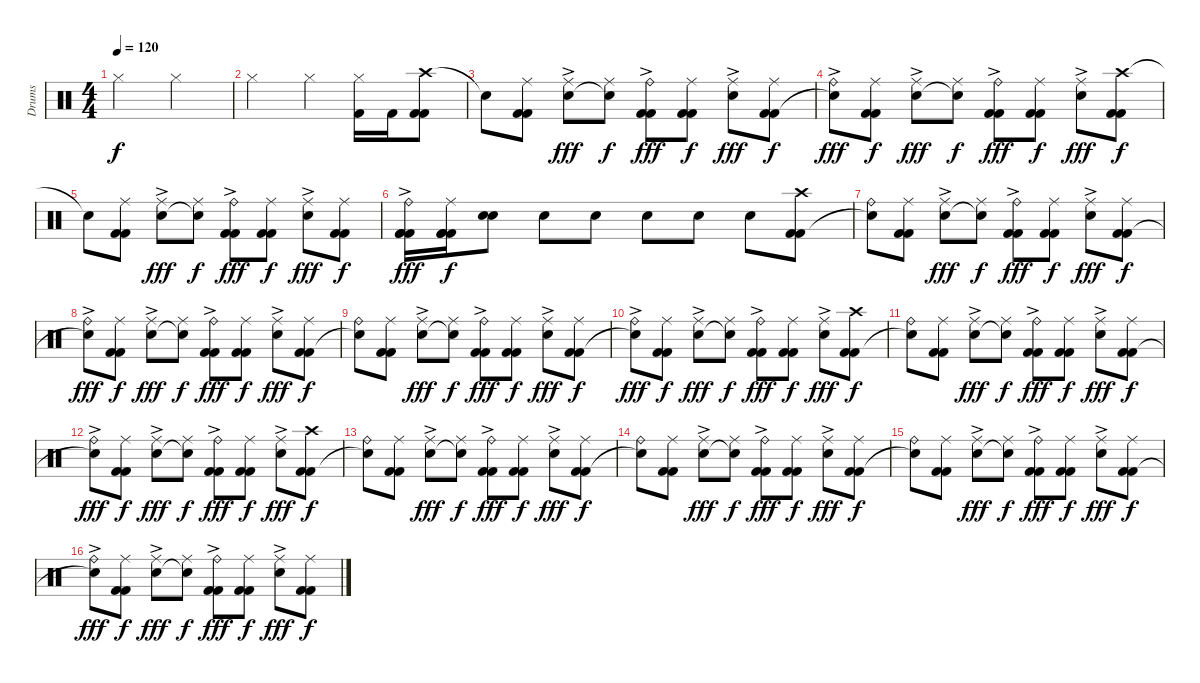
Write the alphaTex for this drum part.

\track ("Drums" "Drums") {instrument percussion}
\staff {score}
\articulation defaults
\ts (4 4)
\tempo 120
\clef neutral
\ks c "Hi-Hat (closed)".2{dy f} "Hi-Hat (closed)".2
|
"Hi-Hat (closed)".2 "Hi-Hat (closed)".4 ("Hi-Hat (closed)" "Kick (hit) 2").16 "Kick (hit) 2".16 ("Crash high (hit)" "Kick (hit) 2" "Kick (hit) 2").8 |
"Snare (hit)"{t}.8 ("Ride (middle)" "Kick (hit) 2" "Kick (hit) 2").8 ("Ride (middle)"{ac} "Snare (hit) 2").8{dy fff} ("Ride (middle)" "Electric Snare (hit)"{t}).8{dy f} ("Ride (bell)"{ac} "Kick (hit) 2" "Kick (hit) 2").8{dy fff} ("Ride (middle)" "Kick (hit) 2" "Kick (hit) 2").8{dy f} ("Ride (middle)"{ac} "Snare (hit) 2").8{dy fff} ("Ride (middle)" "Kick (hit) 2" "Kick (hit) 2").8{dy f} |
("Ride (bell)"{ac} "Snare (hit)"{t}).8{dy fff} ("Ride (middle)" "Kick (hit) 2" "Kick (hit) 2").8{dy f} ("Ride (middle)"{ac} "Snare (hit) 2").8{dy fff} ("Ride (middle)" "Electric Snare (hit)"{t}).8{dy f} ("Ride (bell)"{ac} "Kick (hit) 2" "Kick (hit) 2").8{dy fff} ("Ride (middle)" "Kick (hit) 2" "Kick (hit) 2").8{dy f} ("Ride (middle)"{ac} "Snare (hit) 2").8{dy fff} ("Crash high (hit)" "Kick (hit) 2" "Kick (hit) 2").8{dy f} |
"Snare (hit)"{t}.8 ("Ride (middle)" "Kick (hit) 2" "Kick (hit) 2").8 ("Ride (middle)"{ac} "Snare (hit) 2").8{dy fff} ("Ride (middle)" "Electric Snare (hit)"{t}).8{dy f} ("Ride (bell)"{ac} "Kick (hit) 2" "Kick (hit) 2").8{dy fff} ("Ride (middle)" "Kick (hit) 2" "Kick (hit) 2").8{dy f} ("Ride (middle)"{ac} "Snare (hit) 2").8{dy fff} ("Ride (middle)" "Kick (hit) 2" "Kick (hit) 2").8{dy f} |
("Ride (bell)"{ac} "Kick (hit) 2" "Kick (hit) 2" "Kick (hit) 2").16{dy fff} ("Ride (middle)" "Kick (hit) 2" "Kick (hit) 2" "Kick (hit) 2").16{dy f} ("Snare (hit) 2" "Snare (hit) 2").8 "Snare (hit) 2".8 "Snare (hit) 2".8 "Snare (hit) 2".8 "Snare (hit) 2".8 "Snare (hit) 2".8 ("Crash high (hit)" "Kick (hit) 2" "Kick (hit) 2").8 |
("Ride (bell)" "Snare (hit)"{t}).8 ("Ride (middle)" "Kick (hit) 2" "Kick (hit) 2").8 ("Ride (middle)"{ac} "Snare (hit) 2").8{dy fff} ("Ride (middle)" "Electric Snare (hit)"{t}).8{dy f} ("Ride (bell)"{ac} "Kick (hit) 2" "Kick (hit) 2").8{dy fff} ("Ride (middle)" "Kick (hit) 2" "Kick (hit) 2").8{dy f} ("Ride (middle)"{ac} "Snare (hit) 2").8{dy fff} ("Ride (middle)" "Kick (hit) 2" "Kick (hit) 2").8{dy f} |
("Ride (bell)"{ac} "Snare (hit)"{t}).8{dy fff} ("Ride (middle)" "Kick (hit) 2" "Kick (hit) 2").8{dy f} ("Ride (middle)"{ac} "Snare (hit) 2").8{dy fff} ("Ride (middle)" "Electric Snare (hit)"{t}).8{dy f} ("Ride (bell)"{ac} "Kick (hit) 2" "Kick (hit) 2").8{dy fff} ("Ride (middle)" "Kick (hit) 2" "Kick (hit) 2").8{dy f} ("Ride (middle)"{ac} "Snare (hit) 2").8{dy fff} ("Ride (middle)" "Kick (hit) 2" "Kick (hit) 2").8{dy f} |
("Ride (bell)" "Snare (hit)"{t}).8 ("Ride (middle)" "Kick (hit) 2" "Kick (hit) 2").8 ("Ride (middle)"{ac} "Snare (hit) 2").8{dy fff} ("Ride (middle)" "Electric Snare (hit)"{t}).8{dy f} ("Ride (bell)"{ac} "Kick (hit) 2" "Kick (hit) 2").8{dy fff} ("Ride (middle)" "Kick (hit) 2" "Kick (hit) 2").8{dy f} ("Ride (middle)"{ac} "Snare (hit) 2").8{dy fff} ("Ride (middle)" "Kick (hit) 2" "Kick (hit) 2").8{dy f} |
("Ride (bell)"{ac} "Snare (hit)"{t}).8{dy fff} ("Ride (middle)" "Kick (hit) 2" "Kick (hit) 2").8{dy f} ("Ride (middle)"{ac} "Snare (hit) 2").8{dy fff} ("Ride (middle)" "Electric Snare (hit)"{t}).8{dy f} ("Ride (bell)"{ac} "Kick (hit) 2" "Kick (hit) 2").8{dy fff} ("Ride (middle)" "Kick (hit) 2" "Kick (hit) 2").8{dy f} ("Ride (middle)"{ac} "Snare (hit) 2").8{dy fff} ("Crash high (hit)" "Kick (hit) 2" "Kick (hit) 2").8{dy f} |
("Ride (bell)" "Snare (hit)"{t}).8 ("Ride (middle)" "Kick (hit) 2" "Kick (hit) 2").8 ("Ride (middle)"{ac} "Snare (hit) 2").8{dy fff} ("Ride (middle)" "Electric Snare (hit)"{t}).8{dy f} ("Ride (bell)"{ac} "Kick (hit) 2" "Kick (hit) 2").8{dy fff} ("Ride (middle)" "Kick (hit) 2" "Kick (hit) 2").8{dy f} ("Ride (middle)"{ac} "Snare (hit) 2").8{dy fff} ("Ride (middle)" "Kick (hit) 2" "Kick (hit) 2").8{dy f} |
("Ride (bell)"{ac} "Snare (hit)"{t}).8{dy fff} ("Ride (middle)" "Kick (hit) 2" "Kick (hit) 2").8{dy f} ("Ride (middle)"{ac} "Snare (hit) 2").8{dy fff} ("Ride (middle)" "Electric Snare (hit)"{t}).8{dy f} ("Ride (bell)"{ac} "Kick (hit) 2" "Kick (hit) 2").8{dy fff} ("Ride (middle)" "Kick (hit) 2" "Kick (hit) 2").8{dy f} ("Ride (middle)"{ac} "Snare (hit) 2").8{dy fff} ("Crash high (hit)" "Kick (hit) 2" "Kick (hit) 2").8{dy f} |
("Ride (bell)" "Snare (hit)"{t}).8 ("Ride (middle)" "Kick (hit) 2" "Kick (hit) 2").8 ("Ride (middle)"{ac} "Snare (hit) 2").8{dy fff} ("Ride (middle)" "Electric Snare (hit)"{t}).8{dy f} ("Ride (bell)"{ac} "Kick (hit) 2" "Kick (hit) 2").8{dy fff} ("Ride (middle)" "Kick (hit) 2" "Kick (hit) 2").8{dy f} ("Ride (middle)"{ac} "Snare (hit) 2").8{dy fff} ("Ride (middle)" "Kick (hit) 2" "Kick (hit) 2").8{dy f} |
("Ride (bell)" "Snare (hit)"{t}).8 ("Ride (middle)" "Kick (hit) 2" "Kick (hit) 2").8 ("Ride (middle)"{ac} "Snare (hit) 2").8{dy fff} ("Ride (middle)" "Electric Snare (hit)"{t}).8{dy f} ("Ride (bell)"{ac} "Kick (hit) 2" "Kick (hit) 2").8{dy fff} ("Ride (middle)" "Kick (hit) 2" "Kick (hit) 2").8{dy f} ("Ride (middle)"{ac} "Snare (hit) 2").8{dy fff} ("Ride (middle)" "Kick (hit) 2" "Kick (hit) 2").8{dy f} |
("Ride (bell)" "Snare (hit)"{t}).8 ("Ride (middle)" "Kick (hit) 2" "Kick (hit) 2").8 ("Ride (middle)"{ac} "Snare (hit) 2").8{dy fff} ("Ride (middle)" "Electric Snare (hit)"{t}).8{dy f} ("Ride (bell)"{ac} "Kick (hit) 2" "Kick (hit) 2").8{dy fff} ("Ride (middle)" "Kick (hit) 2" "Kick (hit) 2").8{dy f} ("Ride (middle)"{ac} "Snare (hit) 2").8{dy fff} ("Ride (middle)" "Kick (hit) 2" "Kick (hit) 2").8{dy f} |
("Ride (bell)"{ac} "Snare (hit)"{t}).8{dy fff} ("Ride (middle)" "Kick (hit) 2" "Kick (hit) 2").8{dy f} ("Ride (middle)"{ac} "Snare (hit) 2").8{dy fff} ("Ride (middle)" "Electric Snare (hit)"{t}).8{dy f} ("Ride (bell)"{ac} "Kick (hit) 2" "Kick (hit) 2").8{dy fff} ("Ride (middle)" "Kick (hit) 2" "Kick (hit) 2").8{dy f} ("Ride (middle)"{ac} "Snare (hit) 2").8{dy fff} ("Ride (middle)" "Kick (hit) 2" "Kick (hit) 2").8{dy f}
